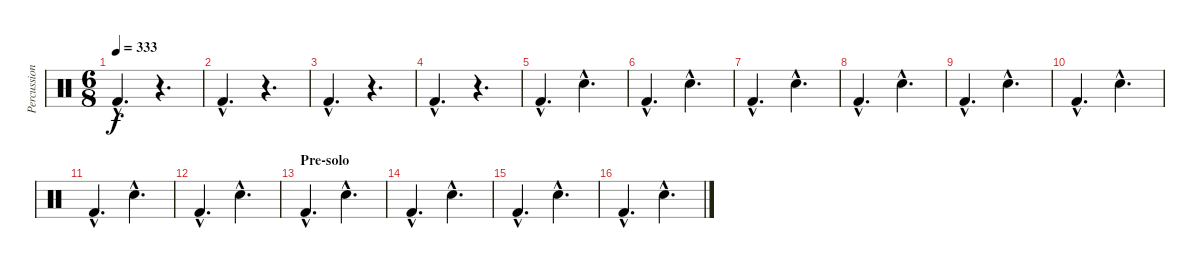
\track ("Percussion" "Percussion") {instrument percussion}
\staff {score}
\articulation defaults
\ts (6 8)
\tempo 333
\clef neutral
\ks c "Kick (hit) 2"{hac}.4{d dy f}
r.4{d} |
"Kick (hit) 2"{hac}.4{d} r.4{d} |
"Kick (hit) 2"{hac}.4{d} r.4{d} |
"Kick (hit) 2"{hac}.4{d} r.4{d} |
"Kick (hit) 2"{hac}.4{d} "Hand Clap (hit)"{hac}.4{d} |
"Kick (hit) 2"{hac}.4{d} "Hand Clap (hit)"{hac}.4{d} |
"Kick (hit) 2"{hac}.4{d} "Hand Clap (hit)"{hac}.4{d} |
"Kick (hit) 2"{hac}.4{d} "Hand Clap (hit)"{hac}.4{d} |
"Kick (hit) 2"{hac}.4{d} "Hand Clap (hit)"{hac}.4{d} |
"Kick (hit) 2"{hac}.4{d} "Hand Clap (hit)"{hac}.4{d} |
"Kick (hit) 2"{hac}.4{d} "Hand Clap (hit)"{hac}.4{d} |
"Kick (hit) 2"{hac}.4{d} "Hand Clap (hit)"{hac}.4{d} |
\section ("" "Pre-solo")
"Kick (hit) 2"{hac}.4{d} "Hand Clap (hit)"{hac}.4{d} |
"Kick (hit) 2"{hac}.4{d} "Hand Clap (hit)"{hac}.4{d} |
"Kick (hit) 2"{hac}.4{d} "Hand Clap (hit)"{hac}.4{d} |
"Kick (hit) 2"{hac}.4{d} "Hand Clap (hit)"{hac}.4{d}
